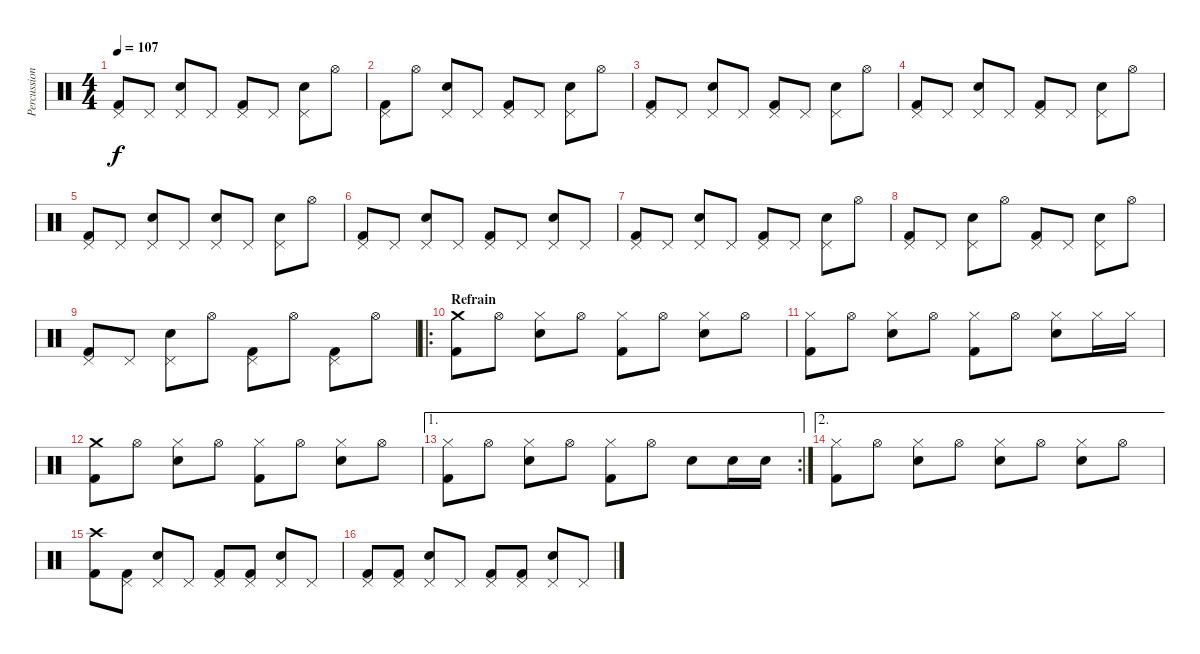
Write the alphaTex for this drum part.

\track ("Percussions" "Percussion") {instrument percussion}
\staff {score}
\articulation defaults
\ts (4 4)
\tempo 107
\clef neutral
\ks c
("Pedal Hi-Hat (hit)" "Kick (hit) 2").8{dy f} "Pedal Hi-Hat (hit)".8 ("Pedal Hi-Hat (hit)" "Electric Snare (hit)").8 "Pedal Hi-Hat (hit)".8 ("Pedal Hi-Hat (hit)" "Kick (hit) 2").8 "Pedal Hi-Hat (hit)".8 ("Pedal Hi-Hat (hit)" "Electric Snare (hit)").8 "Hi-Hat (open)".8 |
("Pedal Hi-Hat (hit)" "Kick (hit) 2").8 "Hi-Hat (open)".8 ("Pedal Hi-Hat (hit)" "Electric Snare (hit)").8 "Pedal Hi-Hat (hit)".8 ("Pedal Hi-Hat (hit)" "Kick (hit) 2").8 "Pedal Hi-Hat (hit)".8 ("Pedal Hi-Hat (hit)" "Electric Snare (hit)").8 "Hi-Hat (open)".8 |
("Pedal Hi-Hat (hit)" "Kick (hit) 2").8 "Pedal Hi-Hat (hit)".8 ("Pedal Hi-Hat (hit)" "Electric Snare (hit)").8 "Pedal Hi-Hat (hit)".8 ("Pedal Hi-Hat (hit)" "Kick (hit) 2").8 "Pedal Hi-Hat (hit)".8 ("Pedal Hi-Hat (hit)" "Electric Snare (hit)").8 "Hi-Hat (open)".8 |
("Pedal Hi-Hat (hit)" "Kick (hit) 2").8 "Pedal Hi-Hat (hit)".8 ("Pedal Hi-Hat (hit)" "Electric Snare (hit)").8 "Pedal Hi-Hat (hit)".8 ("Pedal Hi-Hat (hit)" "Kick (hit) 2").8 "Pedal Hi-Hat (hit)".8 ("Pedal Hi-Hat (hit)" "Electric Snare (hit)").8 "Hi-Hat (open)".8 |
("Pedal Hi-Hat (hit)" "Kick (hit) 2").8 "Pedal Hi-Hat (hit)".8 ("Pedal Hi-Hat (hit)" "Electric Snare (hit)").8 "Pedal Hi-Hat (hit)".8 ("Pedal Hi-Hat (hit)" "Electric Snare (hit)").8 "Pedal Hi-Hat (hit)".8 ("Pedal Hi-Hat (hit)" "Electric Snare (hit)").8 "Hi-Hat (open)".8 |
("Pedal Hi-Hat (hit)" "Kick (hit) 2").8 "Pedal Hi-Hat (hit)".8 ("Pedal Hi-Hat (hit)" "Electric Snare (hit)").8 "Pedal Hi-Hat (hit)".8 ("Pedal Hi-Hat (hit)" "Kick (hit) 2").8 "Pedal Hi-Hat (hit)".8 ("Pedal Hi-Hat (hit)" "Electric Snare (hit)").8 "Pedal Hi-Hat (hit)".8 |
("Pedal Hi-Hat (hit)" "Kick (hit) 2").8 "Pedal Hi-Hat (hit)".8 ("Pedal Hi-Hat (hit)" "Electric Snare (hit)").8 "Pedal Hi-Hat (hit)".8 ("Pedal Hi-Hat (hit)" "Kick (hit) 2").8 "Pedal Hi-Hat (hit)".8 ("Pedal Hi-Hat (hit)" "Electric Snare (hit)").8 "Hi-Hat (open)".8 |
("Pedal Hi-Hat (hit)" "Kick (hit) 2").8 "Pedal Hi-Hat (hit)".8 ("Pedal Hi-Hat (hit)" "Electric Snare (hit)").8 "Hi-Hat (open)".8 ("Pedal Hi-Hat (hit)" "Kick (hit) 2").8 "Pedal Hi-Hat (hit)".8 ("Pedal Hi-Hat (hit)" "Electric Snare (hit)").8 "Hi-Hat (open)".8 |
("Pedal Hi-Hat (hit)" "Kick (hit) 2").8 "Pedal Hi-Hat (hit)".8 ("Pedal Hi-Hat (hit)" "Electric Snare (hit)").8 "Hi-Hat (open)".8 ("Pedal Hi-Hat (hit)" "Kick (hit) 2").8 "Hi-Hat (open)".8 ("Pedal Hi-Hat (hit)" "Kick (hit) 2").8 "Hi-Hat (open)".8 |
\ro
\section ("" "Refrain")
("Crash medium (hit)" "Kick (hit) 2").8 "Hi-Hat (open)".8 ("Hi-Hat (closed)" "Electric Snare (hit)").8 "Hi-Hat (open)".8 ("Hi-Hat (closed)" "Kick (hit) 2").8 "Hi-Hat (open)".8 ("Hi-Hat (closed)" "Electric Snare (hit)").8 "Hi-Hat (open)".8 |
("Hi-Hat (closed)" "Kick (hit) 2").8 "Hi-Hat (open)".8 ("Hi-Hat (closed)" "Electric Snare (hit)").8 "Hi-Hat (open)".8 ("Hi-Hat (closed)" "Kick (hit) 2").8 "Hi-Hat (open)".8 ("Hi-Hat (closed)" "Electric Snare (hit)").8 "Hi-Hat (closed)".16 "Hi-Hat (closed)".16 |
("Crash medium (hit)" "Kick (hit) 2").8 "Hi-Hat (open)".8 ("Hi-Hat (closed)" "Electric Snare (hit)").8 "Hi-Hat (open)".8 ("Hi-Hat (closed)" "Kick (hit) 2").8 "Hi-Hat (open)".8 ("Hi-Hat (closed)" "Electric Snare (hit)").8 "Hi-Hat (open)".8 |
\ae 1
\rc 2
("Hi-Hat (closed)" "Kick (hit) 2").8 "Hi-Hat (open)".8 ("Hi-Hat (closed)" "Electric Snare (hit)").8 "Hi-Hat (open)".8 ("Hi-Hat (closed)" "Kick (hit) 2").8 "Hi-Hat (open)".8 "Electric Snare (hit)".8 "Electric Snare (hit)".16 "Electric Snare (hit)".16 |
\ae 2
("Hi-Hat (closed)" "Kick (hit) 2").8 "Hi-Hat (open)".8 ("Hi-Hat (closed)" "Electric Snare (hit)").8 "Hi-Hat (open)".8 ("Hi-Hat (closed)" "Electric Snare (hit)").8 "Hi-Hat (open)".8 ("Hi-Hat (closed)" "Electric Snare (hit)").8 "Hi-Hat (open)".8 |
("Crash high (hit)" "Kick (hit) 2").8 ("Pedal Hi-Hat (hit)" "Kick (hit) 2").8 ("Pedal Hi-Hat (hit)" "Electric Snare (hit)").8 "Pedal Hi-Hat (hit)".8 ("Pedal Hi-Hat (hit)" "Kick (hit) 2").8 ("Pedal Hi-Hat (hit)" "Kick (hit) 2").8 ("Pedal Hi-Hat (hit)" "Electric Snare (hit)").8 "Pedal Hi-Hat (hit)".8 |
("Pedal Hi-Hat (hit)" "Kick (hit) 2").8 ("Pedal Hi-Hat (hit)" "Kick (hit) 2").8 ("Pedal Hi-Hat (hit)" "Electric Snare (hit)").8 "Pedal Hi-Hat (hit)".8 ("Pedal Hi-Hat (hit)" "Kick (hit) 2").8 ("Pedal Hi-Hat (hit)" "Kick (hit) 2").8 ("Pedal Hi-Hat (hit)" "Electric Snare (hit)").8 "Pedal Hi-Hat (hit)".8
